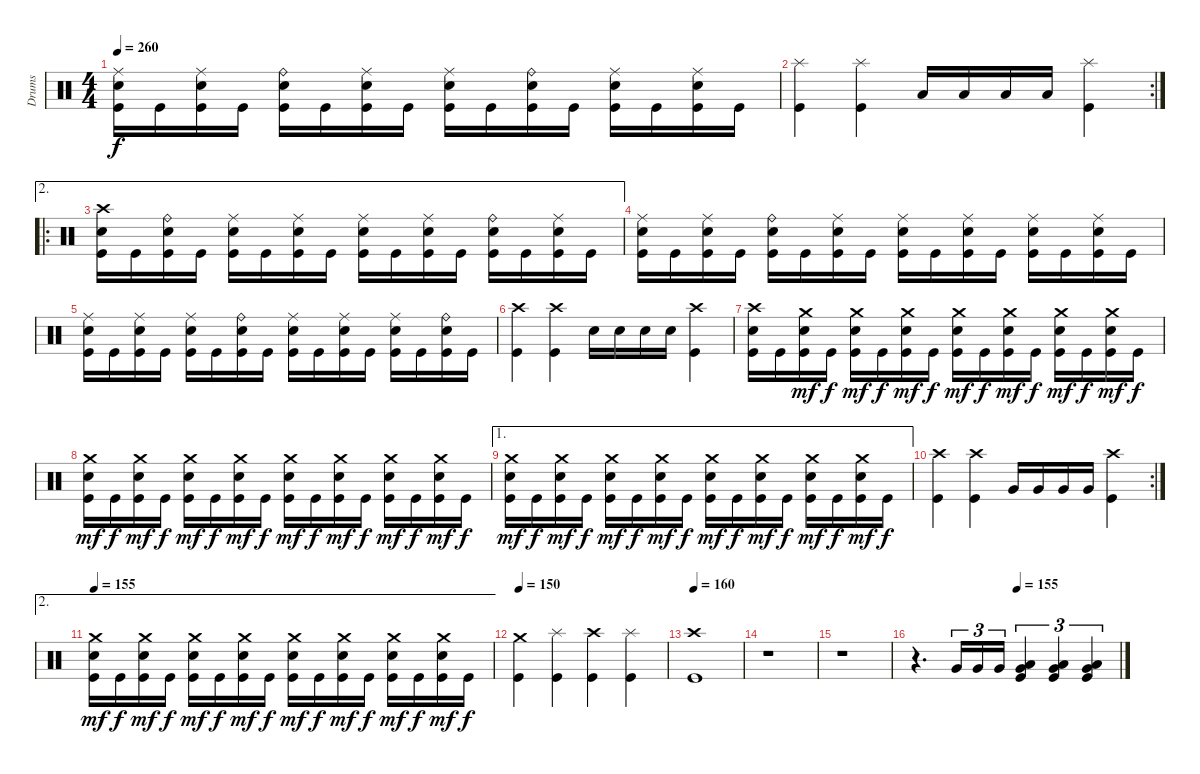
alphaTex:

\track ("Drums" "Drums") {instrument percussion}
\staff {score}
\articulation defaults
\ts (4 4)
\tempo 260
\clef neutral
\ks c
("Ride (middle)" "Electric Snare (hit)" "Kick (hit)").16{dy f} "Kick (hit)".16 ("Ride (middle)" "Electric Snare (hit)" "Kick (hit)").16 "Kick (hit)".16 ("Ride (bell)" "Electric Snare (hit)" "Kick (hit)").16 "Kick (hit)".16 ("Ride (middle)" "Electric Snare (hit)" "Kick (hit)").16 "Kick (hit)".16 ("Ride (middle)" "Electric Snare (hit)" "Kick (hit)").16 "Kick (hit)".16 ("Ride (bell)" "Electric Snare (hit)" "Kick (hit)").16 "Kick (hit)".16 ("Ride (middle)" "Electric Snare (hit)" "Kick (hit)").16 "Kick (hit)".16 ("Ride (middle)" "Electric Snare (hit)" "Kick (hit)").16 "Kick (hit)".16 |
\rc 2
("Splash (hit)" "Kick (hit)").4 ("Splash (hit)" "Kick (hit)").4 "Low Tom (hit)".16 "Low Tom (hit)".16 "Low Tom (hit)".16 "Low Tom (hit)".16 ("Splash (hit)" "Kick (hit)").4 |
\ae 2
\ro
("Crash high (hit)" "Electric Snare (hit)" "Kick (hit)").16 "Kick (hit)".16 ("Ride (bell)" "Electric Snare (hit)" "Kick (hit)").16 "Kick (hit)".16 ("Ride (middle)" "Electric Snare (hit)" "Kick (hit)").16 "Kick (hit)".16 ("Ride (middle)" "Electric Snare (hit)" "Kick (hit)").16 "Kick (hit)".16 ("Ride (middle)" "Electric Snare (hit)" "Kick (hit)").16 "Kick (hit)".16 ("Ride (middle)" "Electric Snare (hit)" "Kick (hit)").16 "Kick (hit)".16 ("Ride (bell)" "Electric Snare (hit)" "Kick (hit)").16 "Kick (hit)".16 ("Ride (middle)" "Electric Snare (hit)" "Kick (hit)").16 "Kick (hit)".16 |
("Ride (middle)" "Electric Snare (hit)" "Kick (hit)").16 "Kick (hit)".16 ("Ride (middle)" "Electric Snare (hit)" "Kick (hit)").16 "Kick (hit)".16 ("Ride (bell)" "Electric Snare (hit)" "Kick (hit)").16 "Kick (hit)".16 ("Ride (middle)" "Electric Snare (hit)" "Kick (hit)").16 "Kick (hit)".16 ("Ride (middle)" "Electric Snare (hit)" "Kick (hit)").16 "Kick (hit)".16 ("Ride (middle)" "Electric Snare (hit)" "Kick (hit)").16 "Kick (hit)".16 ("Ride (middle)" "Electric Snare (hit)" "Kick (hit)").16 "Kick (hit)".16 ("Ride (middle)" "Electric Snare (hit)" "Kick (hit)").16 "Kick (hit)".16 |
("Ride (middle)" "Electric Snare (hit)" "Kick (hit)").16 "Kick (hit)".16 ("Ride (middle)" "Electric Snare (hit)" "Kick (hit)").16 "Kick (hit)".16 ("Ride (middle)" "Electric Snare (hit)" "Kick (hit)").16 "Kick (hit)".16 ("Ride (bell)" "Electric Snare (hit)" "Kick (hit)").16 "Kick (hit)".16 ("Ride (middle)" "Electric Snare (hit)" "Kick (hit)").16 "Kick (hit)".16 ("Ride (middle)" "Electric Snare (hit)" "Kick (hit)").16 "Kick (hit)".16 ("Ride (middle)" "Electric Snare (hit)" "Kick (hit)").16 "Kick (hit)".16 ("Ride (bell)" "Electric Snare (hit)" "Kick (hit)").16 "Kick (hit)".16 |
("Crash high (hit)" "Kick (hit)").4 ("Crash high (hit)" "Kick (hit)").4 "Electric Snare (hit)".16 "Electric Snare (hit)".16 "Electric Snare (hit)".16 "Electric Snare (hit)".16 ("Crash high (hit)" "Kick (hit)").4 |
("Crash high (hit)" "Electric Snare (hit)" "Kick (hit)").16 "Kick (hit)".16 ("Crash medium (hit)" "Electric Snare (hit)" "Kick (hit)").16{dy mf} "Kick (hit)".16{dy f} ("Crash medium (hit)" "Electric Snare (hit)" "Kick (hit)").16{dy mf} "Kick (hit)".16{dy f} ("Crash medium (hit)" "Electric Snare (hit)" "Kick (hit)").16{dy mf} "Kick (hit)".16{dy f} ("Crash medium (hit)" "Electric Snare (hit)" "Kick (hit)").16{dy mf} "Kick (hit)".16{dy f} ("Crash medium (hit)" "Electric Snare (hit)" "Kick (hit)").16{dy mf} "Kick (hit)".16{dy f} ("Crash medium (hit)" "Electric Snare (hit)" "Kick (hit)").16{dy mf} "Kick (hit)".16{dy f} ("Crash medium (hit)" "Electric Snare (hit)" "Kick (hit)").16{dy mf} "Kick (hit)".16{dy f} |
("Crash medium (hit)" "Electric Snare (hit)" "Kick (hit)").16{dy mf} "Kick (hit)".16{dy f} ("Crash medium (hit)" "Electric Snare (hit)" "Kick (hit)").16{dy mf} "Kick (hit)".16{dy f} ("Crash medium (hit)" "Electric Snare (hit)" "Kick (hit)").16{dy mf} "Kick (hit)".16{dy f} ("Crash medium (hit)" "Electric Snare (hit)" "Kick (hit)").16{dy mf} "Kick (hit)".16{dy f} ("Crash medium (hit)" "Electric Snare (hit)" "Kick (hit)").16{dy mf} "Kick (hit)".16{dy f} ("Crash medium (hit)" "Electric Snare (hit)" "Kick (hit)").16{dy mf} "Kick (hit)".16{dy f} ("Crash medium (hit)" "Electric Snare (hit)" "Kick (hit)").16{dy mf} "Kick (hit)".16{dy f} ("Crash medium (hit)" "Electric Snare (hit)" "Kick (hit)").16{dy mf} "Kick (hit)".16{dy f} |
\ae 1
("Crash medium (hit)" "Electric Snare (hit)" "Kick (hit)").16{dy mf} "Kick (hit)".16{dy f} ("Crash medium (hit)" "Electric Snare (hit)" "Kick (hit)").16{dy mf} "Kick (hit)".16{dy f} ("Crash medium (hit)" "Electric Snare (hit)" "Kick (hit)").16{dy mf} "Kick (hit)".16{dy f} ("Crash medium (hit)" "Electric Snare (hit)" "Kick (hit)").16{dy mf} "Kick (hit)".16{dy f} ("Crash medium (hit)" "Electric Snare (hit)" "Kick (hit)").16{dy mf} "Kick (hit)".16{dy f} ("Crash medium (hit)" "Electric Snare (hit)" "Kick (hit)").16{dy mf} "Kick (hit)".16{dy f} ("Crash medium (hit)" "Electric Snare (hit)" "Kick (hit)").16{dy mf} "Kick (hit)".16{dy f} ("Crash medium (hit)" "Electric Snare (hit)" "Kick (hit)").16{dy mf} "Kick (hit)".16{dy f} |
\rc 2
("Crash high (hit)" "Kick (hit)").4 ("Crash high (hit)" "Kick (hit)").4 "Very Low Tom (hit)".16 "Very Low Tom (hit)".16 "Very Low Tom (hit)".16 "Very Low Tom (hit)".16 ("Crash high (hit)" "Kick (hit)").4 |
\ae 2
\tempo 155
("Crash medium (hit)" "Electric Snare (hit)" "Kick (hit)").16{dy mf} "Kick (hit)".16{dy f} ("Crash medium (hit)" "Electric Snare (hit)" "Kick (hit)").16{dy mf} "Kick (hit)".16{dy f} ("Crash medium (hit)" "Electric Snare (hit)" "Kick (hit)").16{dy mf} "Kick (hit)".16{dy f} ("Crash medium (hit)" "Electric Snare (hit)" "Kick (hit)").16{dy mf} "Kick (hit)".16{dy f} ("Crash medium (hit)" "Electric Snare (hit)" "Kick (hit)").16{dy mf} "Kick (hit)".16{dy f} ("Crash medium (hit)" "Electric Snare (hit)" "Kick (hit)").16{dy mf} "Kick (hit)".16{dy f} ("Crash medium (hit)" "Electric Snare (hit)" "Kick (hit)").16{dy mf} "Kick (hit)".16{dy f} ("Crash medium (hit)" "Electric Snare (hit)" "Kick (hit)").16{dy mf} "Kick (hit)".16{dy f} |
\tempo 150
("Crash medium (hit)" "Kick (hit)").4 ("Splash (hit)" "Kick (hit)").4 ("Crash high (hit)" "Kick (hit)").4 ("Splash (hit)" "Kick (hit)").4 |
\tempo 160
("Crash high (hit)" "Kick (hit)").1 |
r.1 |
r.1 |
\tempo (155 0.5)
r.4{d} "Very Low Tom (hit)".16{tu (3 2)} "Very Low Tom (hit)".16{tu (3 2)} "Very Low Tom (hit)".16{tu (3 2)} ("Low Floor Tom (hit)" "Very Low Tom (hit)" "Kick (hit)").4{tu (3 2)} ("Low Floor Tom (hit)" "Very Low Tom (hit)" "Kick (hit)").4{tu (3 2)} ("Low Floor Tom (hit)" "Very Low Tom (hit)" "Kick (hit)").4{tu (3 2)}
